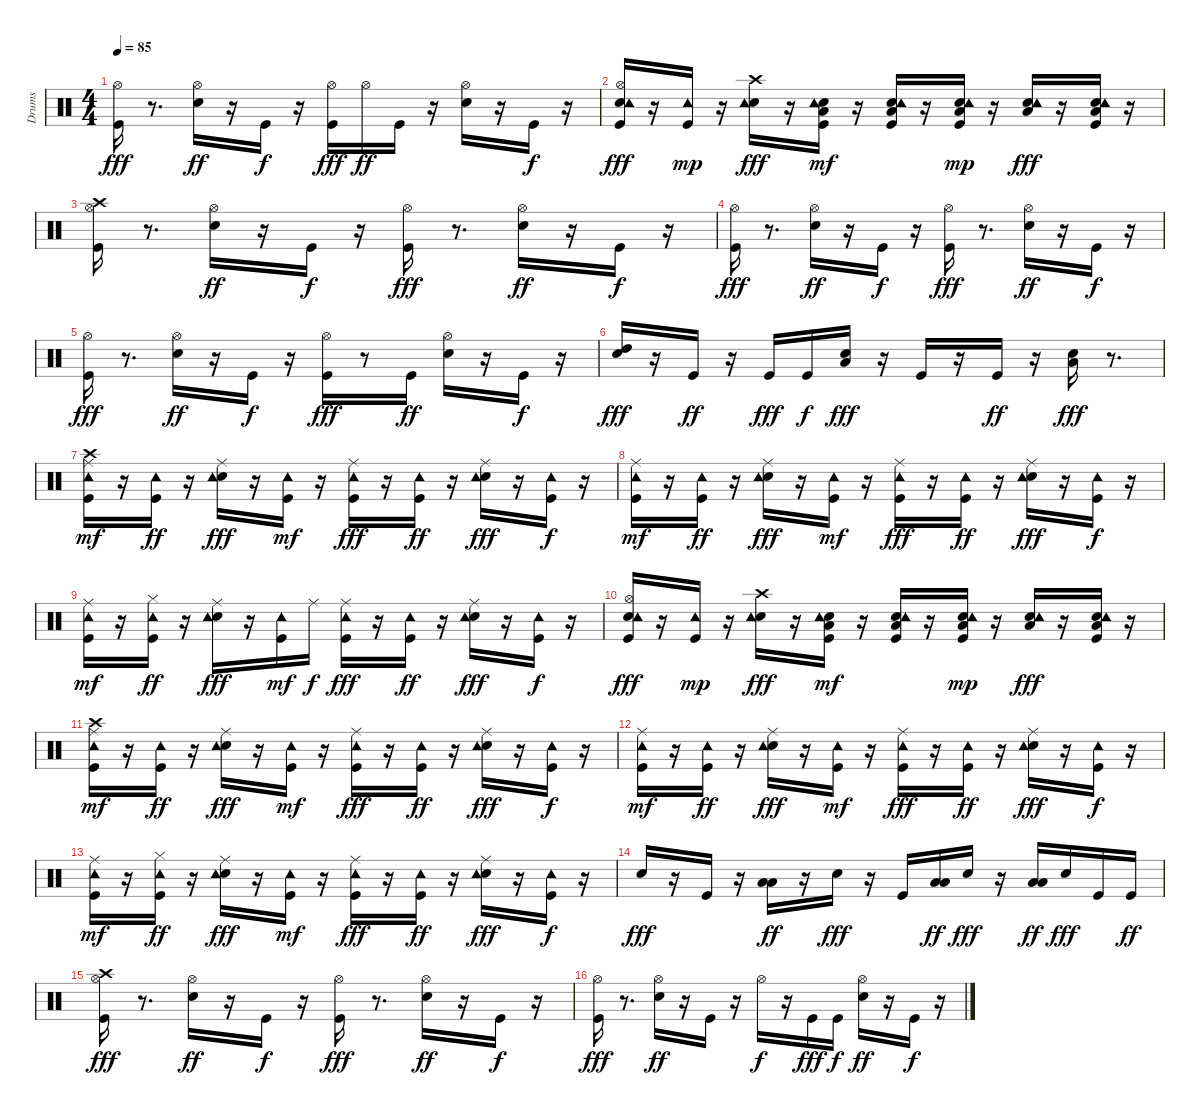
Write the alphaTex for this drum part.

\track ("Drums    " "Drums    ") {instrument percussion}
\staff {score}
\articulation defaults
\ts (4 4)
\tempo 85
\clef neutral
\ks c
("Kick (hit)" "Hi-Hat (open)").16{dy fff} r.8{d} ("Snare (hit) 2" "Hi-Hat (open)").16{dy ff} r.16 "Kick (hit)".16{dy f} r.16 ("Kick (hit)" "Hi-Hat (open)").16{dy fff} "Hi-Hat (open)".16{dy ff} "Kick (hit)".16 r.16 ("Snare (hit) 2" "Hi-Hat (open)").16 r.16 "Kick (hit)".16{dy f} r.16 |
("Kick (hit)" "Snare (hit) 2" "Hi-Hat (open)" "Tambourine (hit)").16{dy fff} r.16 ("Kick (hit)" "Tambourine (hit)").16{dy mp} r.16 ("Snare (hit) 2" "Crash high (hit)" "Tambourine (hit)").16{dy fff} r.16 ("Kick (hit)" "Snare (hit) 2" "Low Floor Tom (hit)" "Tambourine (hit)").16{dy mf} r.16 ("Kick (hit)" "Snare (hit) 2" "Low Floor Tom (hit)" "Tambourine (hit)").16 r.16 ("Kick (hit)" "Snare (hit) 2" "Low Floor Tom (hit)" "Tambourine (hit)").16{dy mp} r.16 ("Snare (hit) 2" "Low Floor Tom (hit)" "Tambourine (hit)").16{dy fff} r.16 ("Kick (hit)" "Snare (hit) 2" "Low Floor Tom (hit)" "Tambourine (hit)").16 r.16 |
("Kick (hit)" "Hi-Hat (open)" "Crash high (hit)").16 r.8{d} ("Snare (hit) 2" "Hi-Hat (open)").16{dy ff} r.16 "Kick (hit)".16{dy f} r.16 ("Kick (hit)" "Hi-Hat (open)").16{dy fff} r.8{d} ("Snare (hit) 2" "Hi-Hat (open)").16{dy ff} r.16 "Kick (hit)".16{dy f} r.16 |
("Kick (hit)" "Hi-Hat (open)").16{dy fff} r.8{d} ("Snare (hit) 2" "Hi-Hat (open)").16{dy ff} r.16 "Kick (hit)".16{dy f} r.16 ("Kick (hit)" "Hi-Hat (open)").16{dy fff} r.8{d} ("Snare (hit) 2" "Hi-Hat (open)").16{dy ff} r.16 "Kick (hit)".16{dy f} r.16 |
("Kick (hit)" "Hi-Hat (open)").16{dy fff} r.8{d} ("Snare (hit) 2" "Hi-Hat (open)").16{dy ff} r.16 "Kick (hit)".16{dy f} r.16 ("Kick (hit)" "Hi-Hat (open)").16{dy fff} r.8 "Kick (hit)".16{dy ff} ("Snare (hit) 2" "Hi-Hat (open)").16 r.16 "Kick (hit)".16{dy f} r.16 |
("Snare (hit) 2" "High Tom (hit)").16{dy fff} r.16 "Kick (hit)".16{dy ff} r.16 "Kick (hit)".16{dy fff} "Kick (hit)".16{dy f} ("Snare (hit) 2" "Low Tom (hit)").16{dy fff} r.16 "Kick (hit)".16 r.16 "Kick (hit)".16{dy ff} r.16 ("Snare (hit) 2" "Low Floor Tom (hit)").16{dy fff} r.8{d} |
("Kick (hit)" "Ride (middle)" "Crash high (hit)" "Tambourine (hit)").16{dy mf} r.16 ("Kick (hit)" "Tambourine (hit)").16{dy ff} r.16 ("Snare (hit) 2" "Ride (middle)" "Tambourine (hit)").16{dy fff} r.16 ("Kick (hit)" "Tambourine (hit)").16{dy mf} r.16 ("Kick (hit)" "Ride (middle)" "Tambourine (hit)").16{dy fff} r.16 ("Kick (hit)" "Tambourine (hit)").16{dy ff} r.16 ("Snare (hit) 2" "Ride (middle)" "Tambourine (hit)").16{dy fff} r.16 ("Kick (hit)" "Tambourine (hit)").16{dy f} r.16 |
("Kick (hit)" "Ride (middle)" "Tambourine (hit)").16{dy mf} r.16 ("Kick (hit)" "Tambourine (hit)").16{dy ff} r.16 ("Snare (hit) 2" "Ride (middle)" "Tambourine (hit)").16{dy fff} r.16 ("Kick (hit)" "Tambourine (hit)").16{dy mf} r.16 ("Kick (hit)" "Ride (middle)" "Tambourine (hit)").16{dy fff} r.16 ("Kick (hit)" "Tambourine (hit)").16{dy ff} r.16 ("Snare (hit) 2" "Ride (middle)" "Tambourine (hit)").16{dy fff} r.16 ("Kick (hit)" "Tambourine (hit)").16{dy f} r.16 |
("Kick (hit)" "Ride (middle)" "Tambourine (hit)").16{dy mf} r.16 ("Kick (hit)" "Hi-Hat (closed)" "Tambourine (hit)").16{dy ff} r.16 ("Snare (hit) 2" "Ride (middle)" "Tambourine (hit)").16{dy fff} r.16 ("Kick (hit)" "Tambourine (hit)").16{dy mf} "Ride (middle)".16{dy f} ("Kick (hit)" "Ride (middle)" "Tambourine (hit)").16{dy fff} r.16 ("Kick (hit)" "Tambourine (hit)").16{dy ff} r.16 ("Snare (hit) 2" "Ride (middle)" "Tambourine (hit)").16{dy fff} r.16 ("Kick (hit)" "Tambourine (hit)").16{dy f} r.16 |
("Kick (hit)" "Snare (hit) 2" "Hi-Hat (open)" "Tambourine (hit)").16{dy fff} r.16 ("Kick (hit)" "Tambourine (hit)").16{dy mp} r.16 ("Snare (hit) 2" "Crash high (hit)" "Tambourine (hit)").16{dy fff} r.16 ("Kick (hit)" "Snare (hit) 2" "Low Floor Tom (hit)" "Tambourine (hit)").16{dy mf} r.16 ("Kick (hit)" "Snare (hit) 2" "Low Floor Tom (hit)" "Tambourine (hit)").16 r.16 ("Kick (hit)" "Snare (hit) 2" "Low Floor Tom (hit)" "Tambourine (hit)").16{dy mp} r.16 ("Snare (hit) 2" "Low Floor Tom (hit)" "Tambourine (hit)").16{dy fff} r.16 ("Kick (hit)" "Snare (hit) 2" "Low Floor Tom (hit)" "Tambourine (hit)").16 r.16 |
("Kick (hit)" "Ride (middle)" "Crash high (hit)" "Tambourine (hit)").16{dy mf} r.16 ("Kick (hit)" "Tambourine (hit)").16{dy ff} r.16 ("Snare (hit) 2" "Ride (middle)" "Tambourine (hit)").16{dy fff} r.16 ("Kick (hit)" "Tambourine (hit)").16{dy mf} r.16 ("Kick (hit)" "Ride (middle)" "Tambourine (hit)").16{dy fff} r.16 ("Kick (hit)" "Tambourine (hit)").16{dy ff} r.16 ("Snare (hit) 2" "Ride (middle)" "Tambourine (hit)").16{dy fff} r.16 ("Kick (hit)" "Tambourine (hit)").16{dy f} r.16 |
("Kick (hit)" "Ride (middle)" "Tambourine (hit)").16{dy mf} r.16 ("Kick (hit)" "Tambourine (hit)").16{dy ff} r.16 ("Snare (hit) 2" "Ride (middle)" "Tambourine (hit)").16{dy fff} r.16 ("Kick (hit)" "Tambourine (hit)").16{dy mf} r.16 ("Kick (hit)" "Ride (middle)" "Tambourine (hit)").16{dy fff} r.16 ("Kick (hit)" "Tambourine (hit)").16{dy ff} r.16 ("Snare (hit) 2" "Ride (middle)" "Tambourine (hit)").16{dy fff} r.16 ("Kick (hit)" "Tambourine (hit)").16{dy f} r.16 |
("Kick (hit)" "Ride (middle)" "Tambourine (hit)").16{dy mf} r.16 ("Kick (hit)" "Hi-Hat (closed)" "Tambourine (hit)").16{dy ff} r.16 ("Snare (hit) 2" "Ride (middle)" "Tambourine (hit)").16{dy fff} r.16 ("Kick (hit)" "Tambourine (hit)").16{dy mf} r.16 ("Kick (hit)" "Ride (middle)" "Tambourine (hit)").16{dy fff} r.16 ("Kick (hit)" "Tambourine (hit)").16{dy ff} r.16 ("Snare (hit) 2" "Ride (middle)" "Tambourine (hit)").16{dy fff} r.16 ("Kick (hit)" "Tambourine (hit)").16{dy f} r.16 |
"Snare (hit) 2".16{dy fff} r.16 "Kick (hit)".16 r.16 ("Low Floor Tom (hit)" "Low Tom (hit)").16{dy ff} r.16 "Snare (hit) 2".16{dy fff} r.16 "Kick (hit)".16 ("Low Floor Tom (hit)" "Low Tom (hit)").16{dy ff} "Snare (hit) 2".16{dy fff} r.16 ("Low Floor Tom (hit)" "Low Tom (hit)").16{dy ff} "Snare (hit) 2".16{dy fff} "Kick (hit)".16 "Kick (hit)".16{dy ff} |
("Kick (hit)" "Hi-Hat (open)" "Crash high (hit)").16{dy fff} r.8{d} ("Snare (hit) 2" "Hi-Hat (open)").16{dy ff} r.16 "Kick (hit)".16{dy f} r.16 ("Kick (hit)" "Hi-Hat (open)").16{dy fff} r.8{d} ("Snare (hit) 2" "Hi-Hat (open)").16{dy ff} r.16 "Kick (hit)".16{dy f} r.16 |
("Kick (hit)" "Hi-Hat (open)").16{dy fff} r.8{d} ("Snare (hit) 2" "Hi-Hat (open)").16{dy ff} r.16 "Kick (hit)".16 r.16 "Hi-Hat (open)".16{dy f} r.16 "Kick (hit)".16{dy fff} "Kick (hit)".16{dy f} ("Snare (hit) 2" "Hi-Hat (open)").16{dy ff} r.16 "Kick (hit)".16{dy f} r.16
